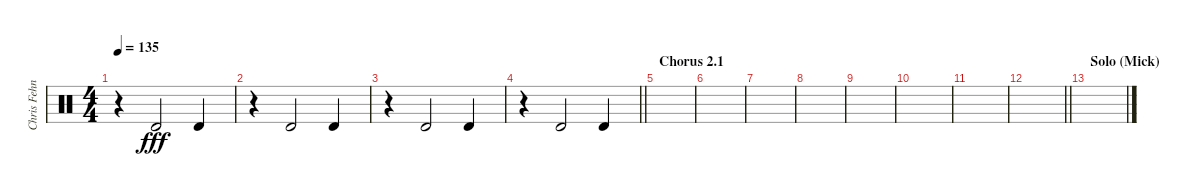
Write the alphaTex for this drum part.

\track ("Chris Fehn" "Chris Fehn") {instrument percussion}
\staff {score}
\articulation defaults
\ts (4 4)
\tempo 135
\clef neutral
\ks c
r.4{dy fff} "Timbale high (hit)".2 "Timbale high (hit)".4 |
r.4 "Timbale high (hit)".2 "Timbale high (hit)".4 |
r.4 "Timbale high (hit)".2 "Timbale high (hit)".4 |
\barLineRight lightlight
r.4 "Timbale high (hit)".2 "Timbale high (hit)".4 |
\section ("" "Chorus 2.1")
|
|
|
|
|
|
|
\barLineRight lightlight
|
\section ("" "Solo (Mick)")
